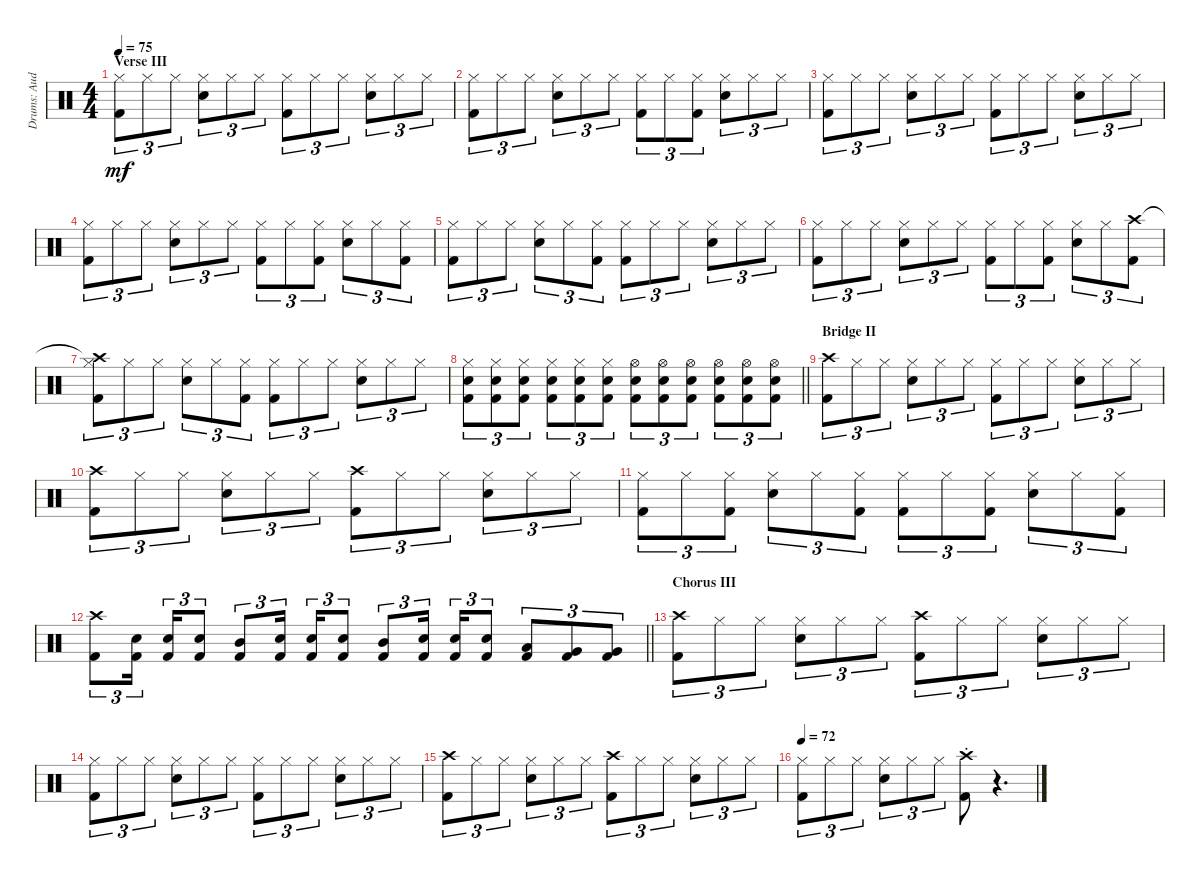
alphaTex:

\track ("Drums: Audie" "Drums: Aud") {instrument percussion}
\staff {score}
\articulation defaults
\ts (4 4)
\section ("" "Verse III")
\tempo 75
\clef neutral
\ks c
("Hi-Hat (closed)" "Kick (hit) 2").8{tu (3 2) dy mf} "Hi-Hat (closed)".8{tu (3 2)} "Hi-Hat (closed)".8{tu (3 2)} ("Hi-Hat (closed)" "Electric Snare (hit)").8{tu (3 2)} "Hi-Hat (closed)".8{tu (3 2)} "Hi-Hat (closed)".8{tu (3 2)} ("Hi-Hat (closed)" "Kick (hit) 2").8{tu (3 2)} "Hi-Hat (closed)".8{tu (3 2)} "Hi-Hat (closed)".8{tu (3 2)} ("Hi-Hat (closed)" "Electric Snare (hit)").8{tu (3 2)} "Hi-Hat (closed)".8{tu (3 2)} "Hi-Hat (closed)".8{tu (3 2)} |
("Hi-Hat (closed)" "Kick (hit) 2").8{tu (3 2)} "Hi-Hat (closed)".8{tu (3 2)} "Hi-Hat (closed)".8{tu (3 2)} ("Hi-Hat (closed)" "Electric Snare (hit)").8{tu (3 2)} "Hi-Hat (closed)".8{tu (3 2)} "Hi-Hat (closed)".8{tu (3 2)} ("Hi-Hat (closed)" "Kick (hit) 2").8{tu (3 2)} "Hi-Hat (closed)".8{tu (3 2)} ("Hi-Hat (closed)" "Kick (hit) 2").8{tu (3 2)} ("Hi-Hat (closed)" "Electric Snare (hit)").8{tu (3 2)} "Hi-Hat (closed)".8{tu (3 2)} "Hi-Hat (closed)".8{tu (3 2)} |
("Hi-Hat (closed)" "Kick (hit) 2").8{tu (3 2)} "Hi-Hat (closed)".8{tu (3 2)} "Hi-Hat (closed)".8{tu (3 2)} ("Hi-Hat (closed)" "Electric Snare (hit)").8{tu (3 2)} "Hi-Hat (closed)".8{tu (3 2)} "Hi-Hat (closed)".8{tu (3 2)} ("Hi-Hat (closed)" "Kick (hit) 2").8{tu (3 2)} "Hi-Hat (closed)".8{tu (3 2)} "Hi-Hat (closed)".8{tu (3 2)} ("Hi-Hat (closed)" "Electric Snare (hit)").8{tu (3 2)} "Hi-Hat (closed)".8{tu (3 2)} "Hi-Hat (closed)".8{tu (3 2)} |
("Hi-Hat (closed)" "Kick (hit) 2").8{tu (3 2)} "Hi-Hat (closed)".8{tu (3 2)} "Hi-Hat (closed)".8{tu (3 2)} ("Hi-Hat (closed)" "Electric Snare (hit)").8{tu (3 2)} "Hi-Hat (closed)".8{tu (3 2)} "Hi-Hat (closed)".8{tu (3 2)} ("Hi-Hat (closed)" "Kick (hit) 2").8{tu (3 2)} "Hi-Hat (closed)".8{tu (3 2)} ("Hi-Hat (closed)" "Kick (hit) 2").8{tu (3 2)} ("Hi-Hat (closed)" "Electric Snare (hit)").8{tu (3 2)} "Hi-Hat (closed)".8{tu (3 2)} ("Hi-Hat (closed)" "Kick (hit) 2").8{tu (3 2)} |
("Hi-Hat (closed)" "Kick (hit) 2").8{tu (3 2)} "Hi-Hat (closed)".8{tu (3 2)} "Hi-Hat (closed)".8{tu (3 2)} ("Hi-Hat (closed)" "Electric Snare (hit)").8{tu (3 2)} "Hi-Hat (closed)".8{tu (3 2)} ("Hi-Hat (closed)" "Kick (hit) 2").8{tu (3 2)} ("Hi-Hat (closed)" "Kick (hit) 2").8{tu (3 2)} "Hi-Hat (closed)".8{tu (3 2)} "Hi-Hat (closed)".8{tu (3 2)} ("Hi-Hat (closed)" "Electric Snare (hit)").8{tu (3 2)} "Hi-Hat (closed)".8{tu (3 2)} "Hi-Hat (closed)".8{tu (3 2)} |
("Hi-Hat (closed)" "Kick (hit) 2").8{tu (3 2)} "Hi-Hat (closed)".8{tu (3 2)} "Hi-Hat (closed)".8{tu (3 2)} ("Hi-Hat (closed)" "Electric Snare (hit)").8{tu (3 2)} "Hi-Hat (closed)".8{tu (3 2)} "Hi-Hat (closed)".8{tu (3 2)} ("Hi-Hat (closed)" "Kick (hit) 2").8{tu (3 2)} "Hi-Hat (closed)".8{tu (3 2)} ("Hi-Hat (closed)" "Kick (hit) 2").8{tu (3 2)} ("Hi-Hat (closed)" "Electric Snare (hit)").8{tu (3 2)} "Hi-Hat (closed)".8{tu (3 2)} ("Crash high (hit)" "Kick (hit) 2").8{tu (3 2)} |
("Crash high (hit)"{t} "Hi-Hat (closed)" "Kick (hit) 2").8{tu (3 2)} "Hi-Hat (closed)".8{tu (3 2)} "Hi-Hat (closed)".8{tu (3 2)} ("Hi-Hat (closed)" "Electric Snare (hit)").8{tu (3 2)} "Hi-Hat (closed)".8{tu (3 2)} ("Hi-Hat (closed)" "Kick (hit) 2").8{tu (3 2)} ("Hi-Hat (closed)" "Kick (hit) 2").8{tu (3 2)} "Hi-Hat (closed)".8{tu (3 2)} "Hi-Hat (closed)".8{tu (3 2)} ("Hi-Hat (closed)" "Electric Snare (hit)").8{tu (3 2)} "Hi-Hat (closed)".8{tu (3 2)} "Hi-Hat (closed)".8{tu (3 2)} |
\barLineRight lightlight
("Hi-Hat (closed)" "Snare (hit) 2" "Kick (hit) 2").8{tu (3 2)} ("Hi-Hat (closed)" "Snare (hit) 2" "Kick (hit) 2").8{tu (3 2)} ("Hi-Hat (closed)" "Snare (hit) 2" "Kick (hit) 2").8{tu (3 2)} ("Hi-Hat (closed)" "Snare (hit) 2" "Kick (hit) 2").8{tu (3 2)} ("Hi-Hat (closed)" "Snare (hit) 2" "Kick (hit) 2").8{tu (3 2)} ("Hi-Hat (closed)" "Snare (hit) 2" "Kick (hit) 2").8{tu (3 2)} ("Hi-Hat (open)" "Snare (hit) 2" "Kick (hit) 2").8{tu (3 2)} ("Hi-Hat (open)" "Snare (hit) 2" "Kick (hit) 2").8{tu (3 2)} ("Hi-Hat (open)" "Snare (hit) 2" "Kick (hit) 2").8{tu (3 2)} ("Hi-Hat (open)" "Snare (hit) 2" "Kick (hit) 2").8{tu (3 2)} ("Hi-Hat (open)" "Snare (hit) 2" "Kick (hit) 2").8{tu (3 2)} ("Hi-Hat (open)" "Snare (hit) 2" "Kick (hit) 2").8{tu (3 2)} |
\section ("" "Bridge II")
("Crash high (hit)" "Kick (hit) 2").8{tu (3 2)} "Hi-Hat (closed)".8{tu (3 2)} "Hi-Hat (closed)".8{tu (3 2)} ("Hi-Hat (closed)" "Electric Snare (hit)").8{tu (3 2)} "Hi-Hat (closed)".8{tu (3 2)} "Hi-Hat (closed)".8{tu (3 2)} ("Hi-Hat (closed)" "Kick (hit) 2").8{tu (3 2)} "Hi-Hat (closed)".8{tu (3 2)} "Hi-Hat (closed)".8{tu (3 2)} ("Hi-Hat (closed)" "Electric Snare (hit)").8{tu (3 2)} "Hi-Hat (closed)".8{tu (3 2)} "Hi-Hat (closed)".8{tu (3 2)} |
("Crash high (hit)" "Kick (hit) 2").8{tu (3 2)} "Hi-Hat (closed)".8{tu (3 2)} "Hi-Hat (closed)".8{tu (3 2)} ("Hi-Hat (closed)" "Electric Snare (hit)").8{tu (3 2)} "Hi-Hat (closed)".8{tu (3 2)} "Hi-Hat (closed)".8{tu (3 2)} ("Crash high (hit)" "Kick (hit) 2").8{tu (3 2)} "Hi-Hat (closed)".8{tu (3 2)} "Hi-Hat (closed)".8{tu (3 2)} ("Hi-Hat (closed)" "Electric Snare (hit)").8{tu (3 2)} "Hi-Hat (closed)".8{tu (3 2)} "Hi-Hat (closed)".8{tu (3 2)} |
("Hi-Hat (closed)" "Kick (hit) 2").8{tu (3 2)} "Hi-Hat (closed)".8{tu (3 2)} ("Hi-Hat (closed)" "Kick (hit) 2").8{tu (3 2)} ("Hi-Hat (closed)" "Electric Snare (hit)").8{tu (3 2)} "Hi-Hat (closed)".8{tu (3 2)} ("Hi-Hat (closed)" "Kick (hit) 2").8{tu (3 2)} ("Hi-Hat (closed)" "Kick (hit) 2").8{tu (3 2)} "Hi-Hat (closed)".8{tu (3 2)} ("Hi-Hat (closed)" "Kick (hit) 2").8{tu (3 2)} ("Hi-Hat (closed)" "Electric Snare (hit)").8{tu (3 2)} "Hi-Hat (closed)".8{tu (3 2)} ("Hi-Hat (closed)" "Kick (hit) 2").8{tu (3 2)} |
\barLineRight lightlight
("Crash high (hit)" "Kick (hit) 2").8{tu (3 2)} ("Snare (hit) 2" "Kick (hit) 2").16{tu (3 2) beam splitsecondary} ("Snare (hit) 2" "Kick (hit) 2").16{tu (3 2)} ("Snare (hit) 2" "Kick (hit) 2").8{tu (3 2)} ("Mid Tom (hit)" "Kick (hit) 2").8{tu (3 2)} ("Snare (hit) 2" "Kick (hit) 2").16{tu (3 2) beam splitsecondary} ("Snare (hit) 2" "Kick (hit) 2").16{tu (3 2)} ("Snare (hit) 2" "Kick (hit) 2").8{tu (3 2)} ("Mid Tom (hit)" "Kick (hit) 2").8{tu (3 2)} ("Snare (hit) 2" "Kick (hit) 2").16{tu (3 2) beam splitsecondary} ("Snare (hit) 2" "Kick (hit) 2").16{tu (3 2)} ("Snare (hit) 2" "Kick (hit) 2").8{tu (3 2)} ("Low Tom (hit)" "Kick (hit) 2").8{tu (3 2)} ("Very Low Tom (hit)" "Kick (hit) 2").8{tu (3 2)} ("Very Low Tom (hit)" "Kick (hit) 2").8{tu (3 2)} |
\section ("" "Chorus III")
("Crash high (hit)" "Kick (hit) 2").8{tu (3 2)} "Hi-Hat (closed)".8{tu (3 2)} "Hi-Hat (closed)".8{tu (3 2)} ("Hi-Hat (closed)" "Electric Snare (hit)").8{tu (3 2)} "Hi-Hat (closed)".8{tu (3 2)} "Hi-Hat (closed)".8{tu (3 2)} ("Crash high (hit)" "Kick (hit) 2").8{tu (3 2)} "Hi-Hat (closed)".8{tu (3 2)} "Hi-Hat (closed)".8{tu (3 2)} ("Hi-Hat (closed)" "Electric Snare (hit)").8{tu (3 2)} "Hi-Hat (closed)".8{tu (3 2)} "Hi-Hat (closed)".8{tu (3 2)} |
("Hi-Hat (closed)" "Kick (hit) 2").8{tu (3 2)} "Hi-Hat (closed)".8{tu (3 2)} "Hi-Hat (closed)".8{tu (3 2)} ("Hi-Hat (closed)" "Electric Snare (hit)").8{tu (3 2)} "Hi-Hat (closed)".8{tu (3 2)} "Hi-Hat (closed)".8{tu (3 2)} ("Hi-Hat (closed)" "Kick (hit) 2").8{tu (3 2)} "Hi-Hat (closed)".8{tu (3 2)} "Hi-Hat (closed)".8{tu (3 2)} ("Hi-Hat (closed)" "Electric Snare (hit)").8{tu (3 2)} "Hi-Hat (closed)".8{tu (3 2)} "Hi-Hat (closed)".8{tu (3 2)} |
("Crash high (hit)" "Kick (hit) 2").8{tu (3 2)} "Hi-Hat (closed)".8{tu (3 2)} "Hi-Hat (closed)".8{tu (3 2)} ("Hi-Hat (closed)" "Electric Snare (hit)").8{tu (3 2)} "Hi-Hat (closed)".8{tu (3 2)} "Hi-Hat (closed)".8{tu (3 2)} ("Crash high (hit)" "Kick (hit) 2").8{tu (3 2)} "Hi-Hat (closed)".8{tu (3 2)} "Hi-Hat (closed)".8{tu (3 2)} ("Hi-Hat (closed)" "Electric Snare (hit)").8{tu (3 2)} "Hi-Hat (closed)".8{tu (3 2)} "Hi-Hat (closed)".8{tu (3 2)} |
\tempo 72
("Hi-Hat (closed)" "Kick (hit) 2").8{tu (3 2)} "Hi-Hat (closed)".8{tu (3 2)} "Hi-Hat (closed)".8{tu (3 2)} ("Hi-Hat (closed)" "Electric Snare (hit)").8{tu (3 2)} "Hi-Hat (closed)".8{tu (3 2)} "Hi-Hat (closed)".8{tu (3 2)} ("Crash high (hit)" "Kick (hit) 2"{st}).8 r.4{d}
